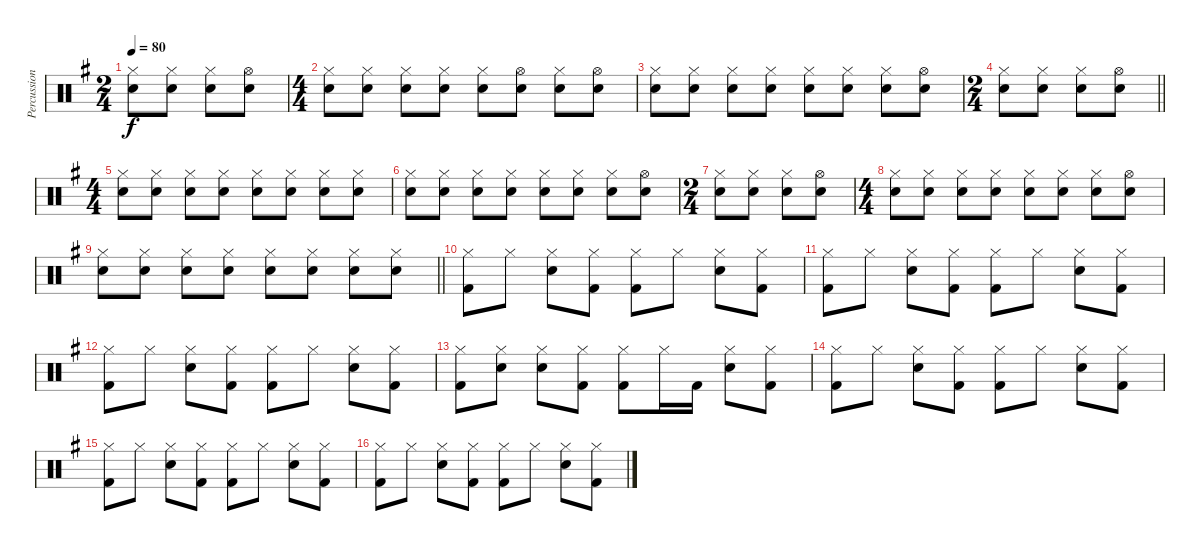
\track ("Percussion" "Percussion") {instrument percussion}
\staff {score}
\articulation defaults
\ts (2 4)
\tempo 80
\clef neutral
\ks g
("Hi-Hat (closed)" "Snare (hit) 2").8{dy f} ("Hi-Hat (closed)" "Snare (hit) 2").8 ("Hi-Hat (closed)" "Snare (hit) 2").8 ("Hi-Hat (open)" "Snare (hit) 2").8 |
\ts (4 4)
("Hi-Hat (closed)" "Snare (hit) 2").8 ("Hi-Hat (closed)" "Snare (hit) 2").8 ("Hi-Hat (closed)" "Snare (hit) 2").8 ("Hi-Hat (closed)" "Snare (hit) 2").8 ("Hi-Hat (closed)" "Snare (hit) 2").8 ("Hi-Hat (open)" "Snare (hit) 2").8 ("Hi-Hat (closed)" "Snare (hit) 2").8 ("Hi-Hat (open)" "Snare (hit) 2").8 |
("Hi-Hat (closed)" "Snare (hit) 2").8 ("Hi-Hat (closed)" "Snare (hit) 2").8 ("Hi-Hat (closed)" "Snare (hit) 2").8 ("Hi-Hat (closed)" "Snare (hit) 2").8 ("Hi-Hat (closed)" "Snare (hit) 2").8 ("Hi-Hat (closed)" "Snare (hit) 2").8 ("Hi-Hat (closed)" "Snare (hit) 2").8 ("Hi-Hat (open)" "Snare (hit) 2").8 |
\ts (2 4)
\barLineRight lightlight
("Hi-Hat (closed)" "Snare (hit) 2").8 ("Hi-Hat (closed)" "Snare (hit) 2").8 ("Hi-Hat (closed)" "Snare (hit) 2").8 ("Hi-Hat (open)" "Snare (hit) 2").8 |
\ts (4 4)
("Hi-Hat (closed)" "Snare (hit) 2").8 ("Hi-Hat (closed)" "Snare (hit) 2").8 ("Hi-Hat (closed)" "Snare (hit) 2").8 ("Hi-Hat (closed)" "Snare (hit) 2").8 ("Hi-Hat (closed)" "Snare (hit) 2").8 ("Hi-Hat (closed)" "Snare (hit) 2").8 ("Hi-Hat (closed)" "Snare (hit) 2").8 ("Hi-Hat (closed)" "Snare (hit) 2").8 |
("Hi-Hat (closed)" "Snare (hit) 2").8 ("Hi-Hat (closed)" "Snare (hit) 2").8 ("Hi-Hat (closed)" "Snare (hit) 2").8 ("Hi-Hat (closed)" "Snare (hit) 2").8 ("Hi-Hat (closed)" "Snare (hit) 2").8 ("Hi-Hat (closed)" "Snare (hit) 2").8 ("Hi-Hat (closed)" "Snare (hit) 2").8 ("Hi-Hat (open)" "Snare (hit) 2").8 |
\ts (2 4)
("Hi-Hat (closed)" "Snare (hit) 2").8 ("Hi-Hat (closed)" "Snare (hit) 2").8 ("Hi-Hat (closed)" "Snare (hit) 2").8 ("Hi-Hat (open)" "Snare (hit) 2").8 |
\ts (4 4)
("Hi-Hat (closed)" "Snare (hit) 2").8 ("Hi-Hat (closed)" "Snare (hit) 2").8 ("Hi-Hat (closed)" "Snare (hit) 2").8 ("Hi-Hat (closed)" "Snare (hit) 2").8 ("Hi-Hat (closed)" "Snare (hit) 2").8 ("Hi-Hat (closed)" "Snare (hit) 2").8 ("Hi-Hat (closed)" "Snare (hit) 2").8 ("Hi-Hat (open)" "Snare (hit) 2").8 |
\barLineRight lightlight
("Hi-Hat (closed)" "Snare (hit) 2").8 ("Hi-Hat (closed)" "Snare (hit) 2").8 ("Hi-Hat (closed)" "Snare (hit) 2").8 ("Hi-Hat (closed)" "Snare (hit) 2").8 ("Hi-Hat (closed)" "Snare (hit) 2").8 ("Hi-Hat (closed)" "Snare (hit) 2").8 ("Hi-Hat (closed)" "Snare (hit) 2").8 ("Hi-Hat (closed)" "Snare (hit) 2").8 |
("Hi-Hat (closed)" "Kick (hit) 2").8 "Hi-Hat (closed)".8 ("Hi-Hat (closed)" "Snare (hit) 2").8 ("Hi-Hat (closed)" "Kick (hit) 2").8 ("Hi-Hat (closed)" "Kick (hit) 2").8 "Hi-Hat (closed)".8 ("Hi-Hat (closed)" "Snare (hit) 2").8 ("Hi-Hat (closed)" "Kick (hit) 2").8 |
("Hi-Hat (closed)" "Kick (hit) 2").8 "Hi-Hat (closed)".8 ("Hi-Hat (closed)" "Snare (hit) 2").8 ("Hi-Hat (closed)" "Kick (hit) 2").8 ("Hi-Hat (closed)" "Kick (hit) 2").8 "Hi-Hat (closed)".8 ("Hi-Hat (closed)" "Snare (hit) 2").8 ("Hi-Hat (closed)" "Kick (hit) 2").8 |
("Hi-Hat (closed)" "Kick (hit) 2").8 "Hi-Hat (closed)".8 ("Hi-Hat (closed)" "Snare (hit) 2").8 ("Hi-Hat (closed)" "Kick (hit) 2").8 ("Hi-Hat (closed)" "Kick (hit) 2").8 "Hi-Hat (closed)".8 ("Hi-Hat (closed)" "Snare (hit) 2").8 ("Hi-Hat (closed)" "Kick (hit) 2").8 |
("Hi-Hat (closed)" "Kick (hit) 2").8 ("Hi-Hat (closed)" "Snare (hit) 2").8 ("Hi-Hat (closed)" "Snare (hit) 2").8 ("Hi-Hat (closed)" "Kick (hit) 2").8 ("Hi-Hat (closed)" "Kick (hit) 2").8 "Hi-Hat (closed)".16 "Kick (hit) 2".16 ("Hi-Hat (closed)" "Snare (hit) 2").8 ("Hi-Hat (closed)" "Kick (hit) 2").8 |
("Hi-Hat (closed)" "Kick (hit) 2").8 "Hi-Hat (closed)".8 ("Hi-Hat (closed)" "Snare (hit) 2").8 ("Hi-Hat (closed)" "Kick (hit) 2").8 ("Hi-Hat (closed)" "Kick (hit) 2").8 "Hi-Hat (closed)".8 ("Hi-Hat (closed)" "Snare (hit) 2").8 ("Hi-Hat (closed)" "Kick (hit) 2").8 |
("Hi-Hat (closed)" "Kick (hit) 2").8 "Hi-Hat (closed)".8 ("Hi-Hat (closed)" "Snare (hit) 2").8 ("Hi-Hat (closed)" "Kick (hit) 2").8 ("Hi-Hat (closed)" "Kick (hit) 2").8 "Hi-Hat (closed)".8 ("Hi-Hat (closed)" "Snare (hit) 2").8 ("Hi-Hat (closed)" "Kick (hit) 2").8 |
("Hi-Hat (closed)" "Kick (hit) 2").8 "Hi-Hat (closed)".8 ("Hi-Hat (closed)" "Snare (hit) 2").8 ("Hi-Hat (closed)" "Kick (hit) 2").8 ("Hi-Hat (closed)" "Kick (hit) 2").8 "Hi-Hat (closed)".8 ("Hi-Hat (closed)" "Snare (hit) 2").8 ("Hi-Hat (closed)" "Kick (hit) 2").8
